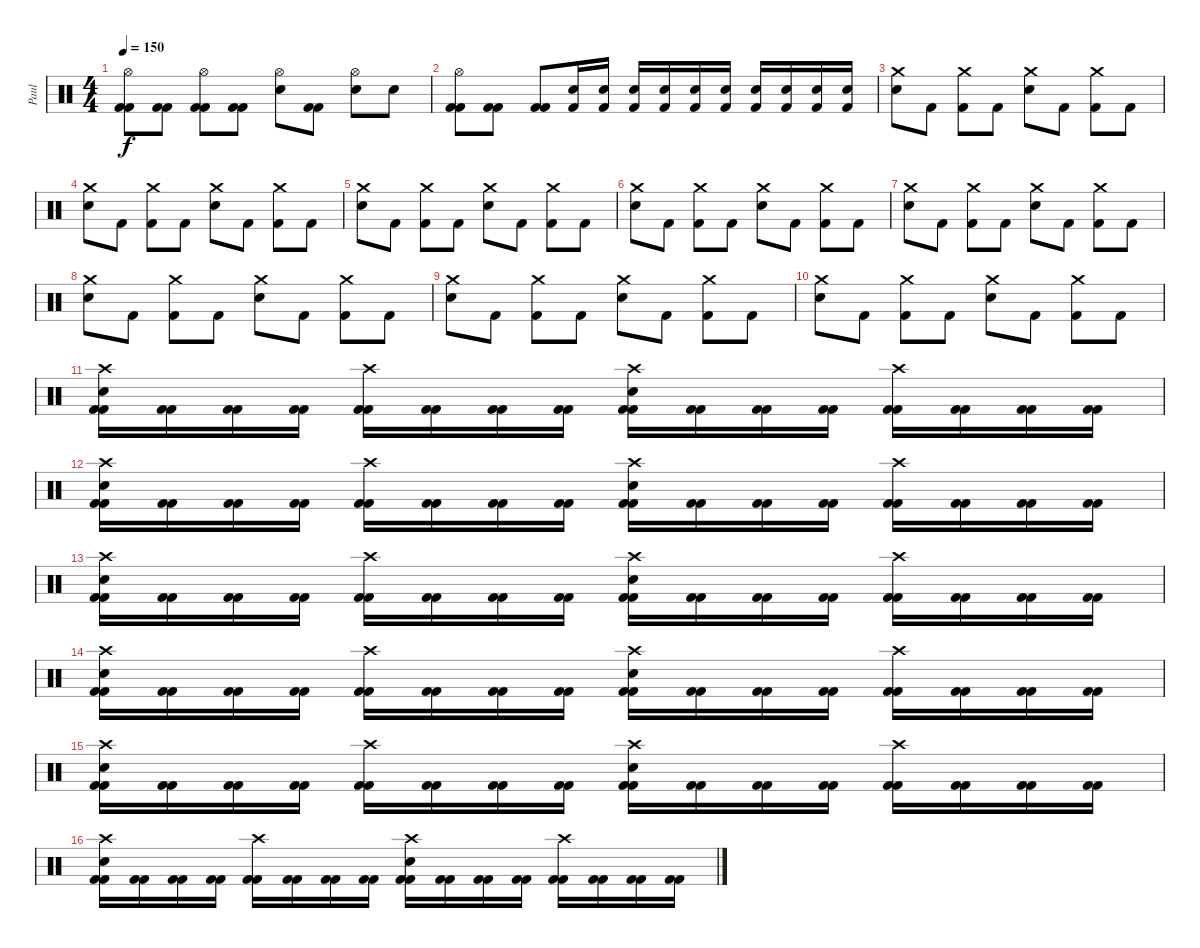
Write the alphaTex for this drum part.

\track ("Paul " "Paul ") {instrument percussion}
\staff {score}
\articulation defaults
\ts (4 4)
\tempo 150
\clef neutral
\ks c
("Hi-Hat (open)" "Kick (hit) 2" "Kick (hit) 2").8{dy f} ("Kick (hit) 2" "Kick (hit) 2").8 ("Hi-Hat (open)" "Kick (hit) 2" "Kick (hit) 2").8 ("Kick (hit) 2" "Kick (hit) 2").8 ("Hi-Hat (open)" "Snare (hit) 2").8 ("Kick (hit) 2" "Kick (hit) 2").8 ("Hi-Hat (open)" "Snare (hit) 2").8 "Snare (hit) 2".8 |
("Hi-Hat (open)" "Kick (hit) 2" "Kick (hit) 2").8 ("Kick (hit) 2" "Kick (hit) 2").8 ("Kick (hit) 2" "Kick (hit) 2").8 ("Electric Snare (hit)" "Kick (hit) 2").16 ("Electric Snare (hit)" "Kick (hit) 2").16 ("Electric Snare (hit)" "Kick (hit) 2").16 ("Electric Snare (hit)" "Kick (hit) 2").16 ("Electric Snare (hit)" "Kick (hit) 2").16 ("Electric Snare (hit)" "Kick (hit) 2").16 ("Electric Snare (hit)" "Kick (hit) 2").16 ("Electric Snare (hit)" "Kick (hit) 2").16 ("Electric Snare (hit)" "Kick (hit) 2").16 ("Electric Snare (hit)" "Kick (hit) 2").16 |
("Crash medium (hit)" "Electric Snare (hit)").8 "Kick (hit) 2".8 ("Crash medium (hit)" "Kick (hit) 2").8 "Kick (hit) 2".8 ("Crash medium (hit)" "Electric Snare (hit)").8 "Kick (hit) 2".8 ("Crash medium (hit)" "Kick (hit) 2").8 "Kick (hit) 2".8 |
("Crash medium (hit)" "Electric Snare (hit)").8 "Kick (hit) 2".8 ("Crash medium (hit)" "Kick (hit) 2").8 "Kick (hit) 2".8 ("Crash medium (hit)" "Electric Snare (hit)").8 "Kick (hit) 2".8 ("Crash medium (hit)" "Kick (hit) 2").8 "Kick (hit) 2".8 |
("Crash medium (hit)" "Electric Snare (hit)").8 "Kick (hit) 2".8 ("Crash medium (hit)" "Kick (hit) 2").8 "Kick (hit) 2".8 ("Crash medium (hit)" "Electric Snare (hit)").8 "Kick (hit) 2".8 ("Crash medium (hit)" "Kick (hit) 2").8 "Kick (hit) 2".8 |
("Crash medium (hit)" "Electric Snare (hit)").8 "Kick (hit) 2".8 ("Crash medium (hit)" "Kick (hit) 2").8 "Kick (hit) 2".8 ("Crash medium (hit)" "Electric Snare (hit)").8 "Kick (hit) 2".8 ("Crash medium (hit)" "Kick (hit) 2").8 "Kick (hit) 2".8 |
("Crash medium (hit)" "Electric Snare (hit)").8 "Kick (hit) 2".8 ("Crash medium (hit)" "Kick (hit) 2").8 "Kick (hit) 2".8 ("Crash medium (hit)" "Electric Snare (hit)").8 "Kick (hit) 2".8 ("Crash medium (hit)" "Kick (hit) 2").8 "Kick (hit) 2".8 |
("Crash medium (hit)" "Electric Snare (hit)").8 "Kick (hit) 2".8 ("Crash medium (hit)" "Kick (hit) 2").8 "Kick (hit) 2".8 ("Crash medium (hit)" "Electric Snare (hit)").8 "Kick (hit) 2".8 ("Crash medium (hit)" "Kick (hit) 2").8 "Kick (hit) 2".8 |
("Crash medium (hit)" "Electric Snare (hit)").8 "Kick (hit) 2".8 ("Crash medium (hit)" "Kick (hit) 2").8 "Kick (hit) 2".8 ("Crash medium (hit)" "Electric Snare (hit)").8 "Kick (hit) 2".8 ("Crash medium (hit)" "Kick (hit) 2").8 "Kick (hit) 2".8 |
("Crash medium (hit)" "Electric Snare (hit)").8 "Kick (hit) 2".8 ("Crash medium (hit)" "Kick (hit) 2").8 "Kick (hit) 2".8 ("Crash medium (hit)" "Electric Snare (hit)").8 "Kick (hit) 2".8 ("Crash medium (hit)" "Kick (hit) 2").8 "Kick (hit) 2".8 |
("Crash high (hit)" "Electric Snare (hit)" "Kick (hit) 2" "Kick (hit) 2").16 ("Kick (hit) 2" "Kick (hit) 2").16 ("Kick (hit) 2" "Kick (hit) 2").16 ("Kick (hit) 2" "Kick (hit) 2").16 ("Crash high (hit)" "Kick (hit) 2" "Kick (hit) 2").16 ("Kick (hit) 2" "Kick (hit) 2").16 ("Kick (hit) 2" "Kick (hit) 2").16 ("Kick (hit) 2" "Kick (hit) 2").16 ("Crash high (hit)" "Electric Snare (hit)" "Kick (hit) 2" "Kick (hit) 2").16 ("Kick (hit) 2" "Kick (hit) 2").16 ("Kick (hit) 2" "Kick (hit) 2").16 ("Kick (hit) 2" "Kick (hit) 2").16 ("Crash high (hit)" "Kick (hit) 2" "Kick (hit) 2").16 ("Kick (hit) 2" "Kick (hit) 2").16 ("Kick (hit) 2" "Kick (hit) 2").16 ("Kick (hit) 2" "Kick (hit) 2").16 |
("Crash high (hit)" "Electric Snare (hit)" "Kick (hit) 2" "Kick (hit) 2").16 ("Kick (hit) 2" "Kick (hit) 2").16 ("Kick (hit) 2" "Kick (hit) 2").16 ("Kick (hit) 2" "Kick (hit) 2").16 ("Crash high (hit)" "Kick (hit) 2" "Kick (hit) 2").16 ("Kick (hit) 2" "Kick (hit) 2").16 ("Kick (hit) 2" "Kick (hit) 2").16 ("Kick (hit) 2" "Kick (hit) 2").16 ("Crash high (hit)" "Electric Snare (hit)" "Kick (hit) 2" "Kick (hit) 2").16 ("Kick (hit) 2" "Kick (hit) 2").16 ("Kick (hit) 2" "Kick (hit) 2").16 ("Kick (hit) 2" "Kick (hit) 2").16 ("Crash high (hit)" "Kick (hit) 2" "Kick (hit) 2").16 ("Kick (hit) 2" "Kick (hit) 2").16 ("Kick (hit) 2" "Kick (hit) 2").16 ("Kick (hit) 2" "Kick (hit) 2").16 |
("Crash high (hit)" "Electric Snare (hit)" "Kick (hit) 2" "Kick (hit) 2").16 ("Kick (hit) 2" "Kick (hit) 2").16 ("Kick (hit) 2" "Kick (hit) 2").16 ("Kick (hit) 2" "Kick (hit) 2").16 ("Crash high (hit)" "Kick (hit) 2" "Kick (hit) 2").16 ("Kick (hit) 2" "Kick (hit) 2").16 ("Kick (hit) 2" "Kick (hit) 2").16 ("Kick (hit) 2" "Kick (hit) 2").16 ("Crash high (hit)" "Electric Snare (hit)" "Kick (hit) 2" "Kick (hit) 2").16 ("Kick (hit) 2" "Kick (hit) 2").16 ("Kick (hit) 2" "Kick (hit) 2").16 ("Kick (hit) 2" "Kick (hit) 2").16 ("Crash high (hit)" "Kick (hit) 2" "Kick (hit) 2").16 ("Kick (hit) 2" "Kick (hit) 2").16 ("Kick (hit) 2" "Kick (hit) 2").16 ("Kick (hit) 2" "Kick (hit) 2").16 |
("Crash high (hit)" "Electric Snare (hit)" "Kick (hit) 2" "Kick (hit) 2").16 ("Kick (hit) 2" "Kick (hit) 2").16 ("Kick (hit) 2" "Kick (hit) 2").16 ("Kick (hit) 2" "Kick (hit) 2").16 ("Crash high (hit)" "Kick (hit) 2" "Kick (hit) 2").16 ("Kick (hit) 2" "Kick (hit) 2").16 ("Kick (hit) 2" "Kick (hit) 2").16 ("Kick (hit) 2" "Kick (hit) 2").16 ("Crash high (hit)" "Electric Snare (hit)" "Kick (hit) 2" "Kick (hit) 2").16 ("Kick (hit) 2" "Kick (hit) 2").16 ("Kick (hit) 2" "Kick (hit) 2").16 ("Kick (hit) 2" "Kick (hit) 2").16 ("Crash high (hit)" "Kick (hit) 2" "Kick (hit) 2").16 ("Kick (hit) 2" "Kick (hit) 2").16 ("Kick (hit) 2" "Kick (hit) 2").16 ("Kick (hit) 2" "Kick (hit) 2").16 |
("Crash high (hit)" "Electric Snare (hit)" "Kick (hit) 2" "Kick (hit) 2").16 ("Kick (hit) 2" "Kick (hit) 2").16 ("Kick (hit) 2" "Kick (hit) 2").16 ("Kick (hit) 2" "Kick (hit) 2").16 ("Crash high (hit)" "Kick (hit) 2" "Kick (hit) 2").16 ("Kick (hit) 2" "Kick (hit) 2").16 ("Kick (hit) 2" "Kick (hit) 2").16 ("Kick (hit) 2" "Kick (hit) 2").16 ("Crash high (hit)" "Electric Snare (hit)" "Kick (hit) 2" "Kick (hit) 2").16 ("Kick (hit) 2" "Kick (hit) 2").16 ("Kick (hit) 2" "Kick (hit) 2").16 ("Kick (hit) 2" "Kick (hit) 2").16 ("Crash high (hit)" "Kick (hit) 2" "Kick (hit) 2").16 ("Kick (hit) 2" "Kick (hit) 2").16 ("Kick (hit) 2" "Kick (hit) 2").16 ("Kick (hit) 2" "Kick (hit) 2").16 |
("Crash high (hit)" "Electric Snare (hit)" "Kick (hit) 2" "Kick (hit) 2").16 ("Kick (hit) 2" "Kick (hit) 2").16 ("Kick (hit) 2" "Kick (hit) 2").16 ("Kick (hit) 2" "Kick (hit) 2").16 ("Crash high (hit)" "Kick (hit) 2" "Kick (hit) 2").16 ("Kick (hit) 2" "Kick (hit) 2").16 ("Kick (hit) 2" "Kick (hit) 2").16 ("Kick (hit) 2" "Kick (hit) 2").16 ("Crash high (hit)" "Electric Snare (hit)" "Kick (hit) 2" "Kick (hit) 2").16 ("Kick (hit) 2" "Kick (hit) 2").16 ("Kick (hit) 2" "Kick (hit) 2").16 ("Kick (hit) 2" "Kick (hit) 2").16 ("Crash high (hit)" "Kick (hit) 2" "Kick (hit) 2").16 ("Kick (hit) 2" "Kick (hit) 2").16 ("Kick (hit) 2" "Kick (hit) 2").16 ("Kick (hit) 2" "Kick (hit) 2").16
